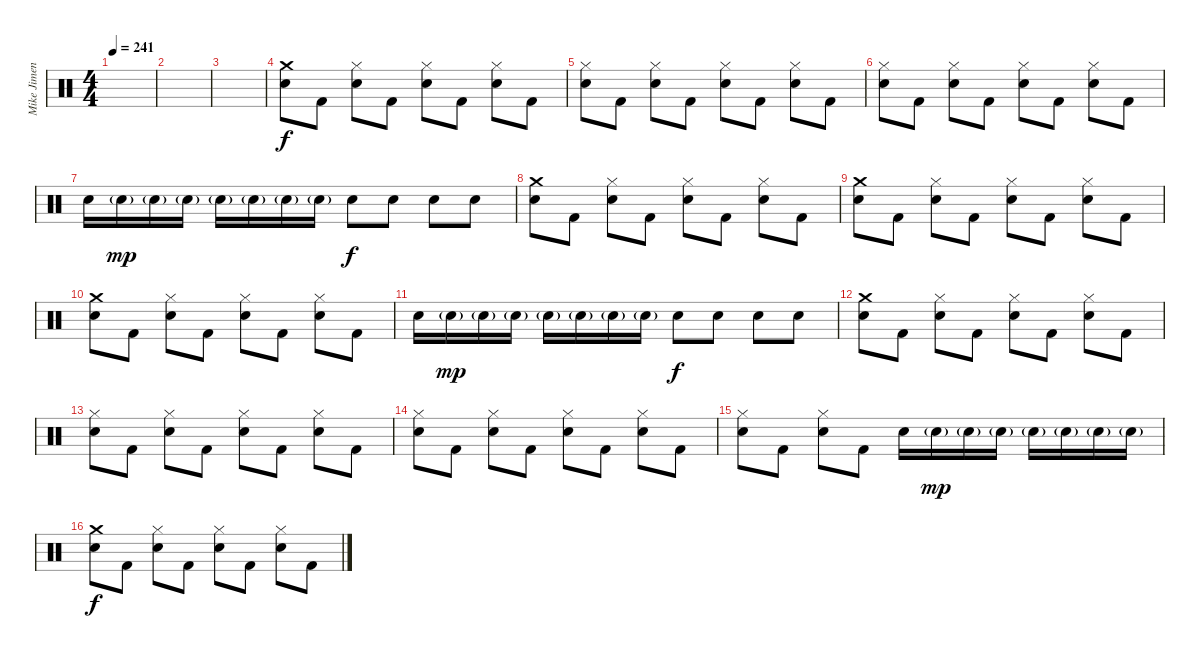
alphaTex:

\track ("Mike Jimenez" "Mike Jimen") {instrument percussion}
\staff {score}
\articulation defaults
\ts (4 4)
\tempo 241
\clef neutral
\ks c
|
|
|
("Crash medium (hit)" "Electric Snare (hit)").8 "Kick (hit) 2".8 ("Hi-Hat (closed)" "Electric Snare (hit)").8 "Kick (hit) 2".8 ("Hi-Hat (closed)" "Electric Snare (hit)").8 "Kick (hit) 2".8 ("Hi-Hat (closed)" "Electric Snare (hit)").8 "Kick (hit) 2".8 |
("Hi-Hat (closed)" "Electric Snare (hit)").8 "Kick (hit) 2".8 ("Hi-Hat (closed)" "Electric Snare (hit)").8 "Kick (hit) 2".8 ("Hi-Hat (closed)" "Electric Snare (hit)").8 "Kick (hit) 2".8 ("Hi-Hat (closed)" "Electric Snare (hit)").8 "Kick (hit) 2".8 |
("Hi-Hat (closed)" "Electric Snare (hit)").8 "Kick (hit) 2".8 ("Hi-Hat (closed)" "Electric Snare (hit)").8 "Kick (hit) 2".8 ("Hi-Hat (closed)" "Electric Snare (hit)").8 "Kick (hit) 2".8 ("Hi-Hat (closed)" "Electric Snare (hit)").8 "Kick (hit) 2".8 |
"Electric Snare (hit)".16 "Electric Snare (hit)"{g}.16{dy mp} "Electric Snare (hit)"{g}.16 "Electric Snare (hit)"{g}.16 "Electric Snare (hit)"{g}.16 "Electric Snare (hit)"{g}.16 "Electric Snare (hit)"{g}.16 "Electric Snare (hit)"{g}.16 "Electric Snare (hit)".8{dy f} "Electric Snare (hit)".8 "Electric Snare (hit)".8 "Electric Snare (hit)".8 |
("Crash medium (hit)" "Electric Snare (hit)").8 "Kick (hit) 2".8 ("Hi-Hat (closed)" "Electric Snare (hit)").8 "Kick (hit) 2".8 ("Hi-Hat (closed)" "Electric Snare (hit)").8 "Kick (hit) 2".8 ("Hi-Hat (closed)" "Electric Snare (hit)").8 "Kick (hit) 2".8 |
("Crash medium (hit)" "Electric Snare (hit)").8 "Kick (hit) 2".8 ("Hi-Hat (closed)" "Electric Snare (hit)").8 "Kick (hit) 2".8 ("Hi-Hat (closed)" "Electric Snare (hit)").8 "Kick (hit) 2".8 ("Hi-Hat (closed)" "Electric Snare (hit)").8 "Kick (hit) 2".8 |
("Crash medium (hit)" "Electric Snare (hit)").8 "Kick (hit) 2".8 ("Hi-Hat (closed)" "Electric Snare (hit)").8 "Kick (hit) 2".8 ("Hi-Hat (closed)" "Electric Snare (hit)").8 "Kick (hit) 2".8 ("Hi-Hat (closed)" "Electric Snare (hit)").8 "Kick (hit) 2".8 |
"Electric Snare (hit)".16 "Electric Snare (hit)"{g}.16{dy mp} "Electric Snare (hit)"{g}.16 "Electric Snare (hit)"{g}.16 "Electric Snare (hit)"{g}.16 "Electric Snare (hit)"{g}.16 "Electric Snare (hit)"{g}.16 "Electric Snare (hit)"{g}.16 "Electric Snare (hit)".8{dy f} "Electric Snare (hit)".8 "Electric Snare (hit)".8 "Electric Snare (hit)".8 |
("Crash medium (hit)" "Electric Snare (hit)").8 "Kick (hit) 2".8 ("Hi-Hat (closed)" "Electric Snare (hit)").8 "Kick (hit) 2".8 ("Hi-Hat (closed)" "Electric Snare (hit)").8 "Kick (hit) 2".8 ("Hi-Hat (closed)" "Electric Snare (hit)").8 "Kick (hit) 2".8 |
("Hi-Hat (closed)" "Electric Snare (hit)").8 "Kick (hit) 2".8 ("Hi-Hat (closed)" "Electric Snare (hit)").8 "Kick (hit) 2".8 ("Hi-Hat (closed)" "Electric Snare (hit)").8 "Kick (hit) 2".8 ("Hi-Hat (closed)" "Electric Snare (hit)").8 "Kick (hit) 2".8 |
("Hi-Hat (closed)" "Electric Snare (hit)").8 "Kick (hit) 2".8 ("Hi-Hat (closed)" "Electric Snare (hit)").8 "Kick (hit) 2".8 ("Hi-Hat (closed)" "Electric Snare (hit)").8 "Kick (hit) 2".8 ("Hi-Hat (closed)" "Electric Snare (hit)").8 "Kick (hit) 2".8 |
("Hi-Hat (closed)" "Electric Snare (hit)").8 "Kick (hit) 2".8 ("Hi-Hat (closed)" "Electric Snare (hit)").8 "Kick (hit) 2".8 "Electric Snare (hit)".16 "Electric Snare (hit)"{g}.16{dy mp} "Electric Snare (hit)"{g}.16 "Electric Snare (hit)"{g}.16 "Electric Snare (hit)"{g}.16 "Electric Snare (hit)"{g}.16 "Electric Snare (hit)"{g}.16 "Electric Snare (hit)"{g}.16 |
("Crash medium (hit)" "Electric Snare (hit)").8{dy f} "Kick (hit) 2".8 ("Hi-Hat (closed)" "Electric Snare (hit)").8 "Kick (hit) 2".8 ("Hi-Hat (closed)" "Electric Snare (hit)").8 "Kick (hit) 2".8 ("Hi-Hat (closed)" "Electric Snare (hit)").8 "Kick (hit) 2".8
